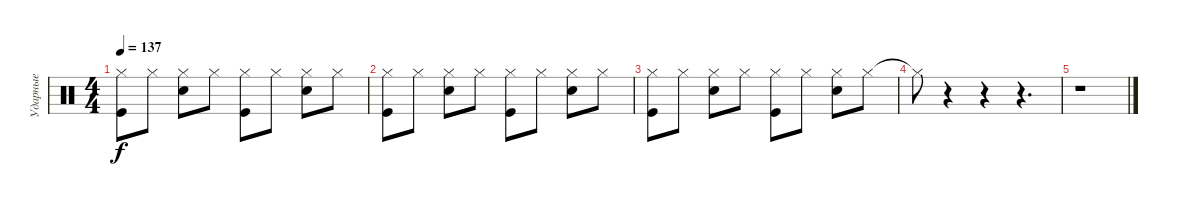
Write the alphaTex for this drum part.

\track ("Ударные" "Ударные") {instrument percussion}
\staff {score}
\articulation defaults
\ts (4 4)
\tempo 137
\clef neutral
\ks c
("Hi-Hat (closed)" "Kick (hit)").8{dy f} "Hi-Hat (closed)".8 ("Hi-Hat (closed)" "Snare (hit) 2").8 "Hi-Hat (closed)".8 ("Hi-Hat (closed)" "Kick (hit)").8 "Hi-Hat (closed)".8 ("Hi-Hat (closed)" "Snare (hit) 2").8 "Hi-Hat (closed)".8 |
("Hi-Hat (closed)" "Kick (hit)").8 "Hi-Hat (closed)".8 ("Hi-Hat (closed)" "Snare (hit) 2").8 "Hi-Hat (closed)".8 ("Hi-Hat (closed)" "Kick (hit)").8 "Hi-Hat (closed)".8 ("Hi-Hat (closed)" "Snare (hit) 2").8 "Hi-Hat (closed)".8 |
("Hi-Hat (closed)" "Kick (hit)").8 "Hi-Hat (closed)".8 ("Hi-Hat (closed)" "Snare (hit) 2").8 "Hi-Hat (closed)".8 ("Hi-Hat (closed)" "Kick (hit)").8 "Hi-Hat (closed)".8 ("Hi-Hat (closed)" "Snare (hit) 2").8 "Hi-Hat (closed)".8 |
"Hi-Hat (closed)"{t}.8 r.4 r.4 r.4{d} |
r.1
